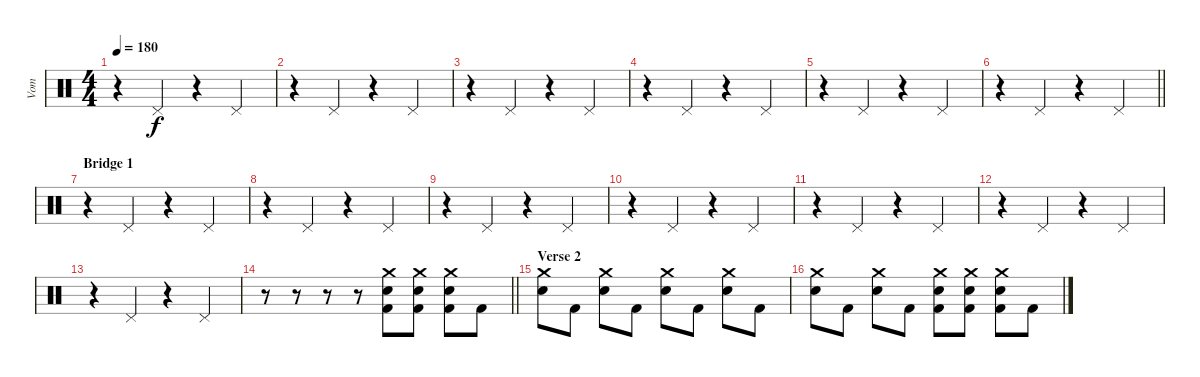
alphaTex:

\track ("Vom" "Vom") {instrument percussion}
\staff {score}
\articulation defaults
\ts (4 4)
\tempo 180
\clef neutral
\ks c
r.4{dy f} "Pedal Hi-Hat (hit)".4 r.4 "Pedal Hi-Hat (hit)".4 |
r.4 "Pedal Hi-Hat (hit)".4 r.4 "Pedal Hi-Hat (hit)".4 |
r.4 "Pedal Hi-Hat (hit)".4 r.4 "Pedal Hi-Hat (hit)".4 |
r.4 "Pedal Hi-Hat (hit)".4 r.4 "Pedal Hi-Hat (hit)".4 |
r.4 "Pedal Hi-Hat (hit)".4 r.4 "Pedal Hi-Hat (hit)".4 |
\barLineRight lightlight
r.4 "Pedal Hi-Hat (hit)".4 r.4 "Pedal Hi-Hat (hit)".4 |
\section ("" "Bridge 1")
r.4 "Pedal Hi-Hat (hit)".4 r.4 "Pedal Hi-Hat (hit)".4 |
r.4 "Pedal Hi-Hat (hit)".4 r.4 "Pedal Hi-Hat (hit)".4 |
r.4 "Pedal Hi-Hat (hit)".4 r.4 "Pedal Hi-Hat (hit)".4 |
r.4 "Pedal Hi-Hat (hit)".4 r.4 "Pedal Hi-Hat (hit)".4 |
r.4 "Pedal Hi-Hat (hit)".4 r.4 "Pedal Hi-Hat (hit)".4 |
r.4 "Pedal Hi-Hat (hit)".4 r.4 "Pedal Hi-Hat (hit)".4 |
r.4 "Pedal Hi-Hat (hit)".4 r.4 "Pedal Hi-Hat (hit)".4 |
\barLineRight lightlight
r.8 r.8 r.8 r.8 ("Crash medium (hit)" "Snare (hit) 2" "Kick (hit) 2").8 ("Crash medium (hit)" "Snare (hit) 2" "Kick (hit) 2").8 ("Crash medium (hit)" "Snare (hit) 2" "Kick (hit) 2").8 "Kick (hit) 2".8 |
\section ("" "Verse 2")
("Crash medium (hit)" "Snare (hit) 2").8 "Kick (hit) 2".8 ("Crash medium (hit)" "Snare (hit) 2").8 "Kick (hit) 2".8 ("Crash medium (hit)" "Snare (hit) 2").8 "Kick (hit) 2".8 ("Crash medium (hit)" "Snare (hit) 2").8 "Kick (hit) 2".8 |
("Crash medium (hit)" "Snare (hit) 2").8 "Kick (hit) 2".8 ("Crash medium (hit)" "Snare (hit) 2").8 "Kick (hit) 2".8 ("Crash medium (hit)" "Snare (hit) 2" "Kick (hit) 2").8 ("Crash medium (hit)" "Snare (hit) 2" "Kick (hit) 2").8 ("Crash medium (hit)" "Snare (hit) 2" "Kick (hit) 2").8 "Kick (hit) 2".8
